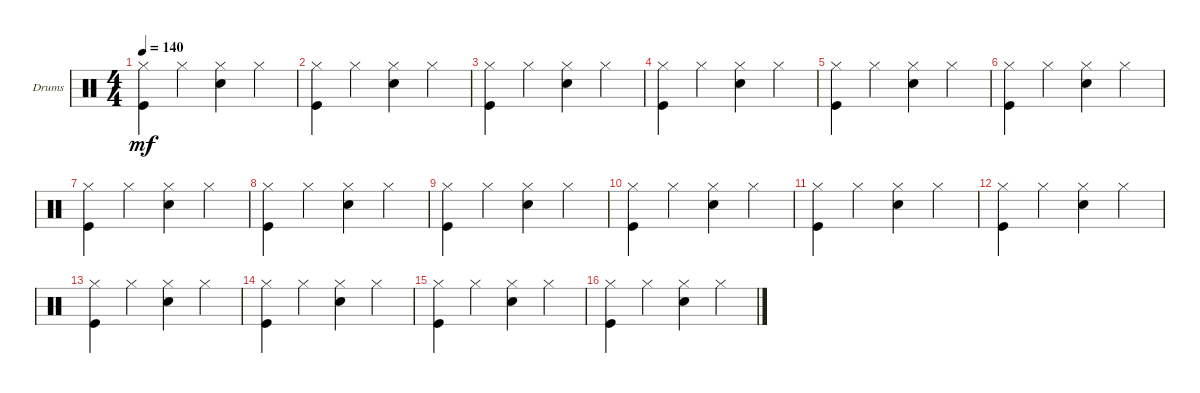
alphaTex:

\defaultSystemsLayout 4
\bracketExtendMode groupsimilarinstruments
\firstSystemTrackNameOrientation horizontal
\otherSystemsTrackNameOrientation horizontal
\track ("Drumkit" "Drums") {instrument percussion}
\staff {score}
\articulation defaults
\ts (4 4)
\tempo 140
\clef neutral
\scale
0.333333
\ks c
("Hi-Hat (closed)" "Kick (hit)").4{dy mf} "Hi-Hat (closed)".4 ("Hi-Hat (closed)" "Snare (hit) 2").4 "Hi-Hat (closed)".4 |
\scale
0.333333 ("Hi-Hat (closed)" "Kick (hit)").4 "Hi-Hat (closed)".4 ("Hi-Hat (closed)" "Snare (hit) 2").4 "Hi-Hat (closed)".4 |
\scale
0.333333 ("Hi-Hat (closed)" "Kick (hit)").4 "Hi-Hat (closed)".4 ("Hi-Hat (closed)" "Snare (hit) 2").4 "Hi-Hat (closed)".4 |
\scale
0.333333 ("Hi-Hat (closed)" "Kick (hit)").4 "Hi-Hat (closed)".4 ("Hi-Hat (closed)" "Snare (hit) 2").4 "Hi-Hat (closed)".4 |
\scale
0.333333 ("Hi-Hat (closed)" "Kick (hit)").4 "Hi-Hat (closed)".4 ("Hi-Hat (closed)" "Snare (hit) 2").4 "Hi-Hat (closed)".4 |
\scale
0.333333 ("Hi-Hat (closed)" "Kick (hit)").4 "Hi-Hat (closed)".4 ("Hi-Hat (closed)" "Snare (hit) 2").4 "Hi-Hat (closed)".4 |
\scale
0.333333 ("Hi-Hat (closed)" "Kick (hit)").4 "Hi-Hat (closed)".4 ("Hi-Hat (closed)" "Snare (hit) 2").4 "Hi-Hat (closed)".4 |
\scale
0.333333 ("Hi-Hat (closed)" "Kick (hit)").4 "Hi-Hat (closed)".4 ("Hi-Hat (closed)" "Snare (hit) 2").4 "Hi-Hat (closed)".4 |
\scale
0.333333 ("Hi-Hat (closed)" "Kick (hit)").4 "Hi-Hat (closed)".4 ("Hi-Hat (closed)" "Snare (hit) 2").4 "Hi-Hat (closed)".4 |
\scale
0.333333 ("Hi-Hat (closed)" "Kick (hit)").4 "Hi-Hat (closed)".4 ("Hi-Hat (closed)" "Snare (hit) 2").4 "Hi-Hat (closed)".4 |
\scale
0.333333 ("Hi-Hat (closed)" "Kick (hit)").4 "Hi-Hat (closed)".4 ("Hi-Hat (closed)" "Snare (hit) 2").4 "Hi-Hat (closed)".4 |
\scale
0.333333 ("Hi-Hat (closed)" "Kick (hit)").4 "Hi-Hat (closed)".4 ("Hi-Hat (closed)" "Snare (hit) 2").4 "Hi-Hat (closed)".4 |
\scale
0.333333 ("Hi-Hat (closed)" "Kick (hit)").4 "Hi-Hat (closed)".4 ("Hi-Hat (closed)" "Snare (hit) 2").4 "Hi-Hat (closed)".4 |
\scale
0.333333 ("Hi-Hat (closed)" "Kick (hit)").4 "Hi-Hat (closed)".4 ("Hi-Hat (closed)" "Snare (hit) 2").4 "Hi-Hat (closed)".4 |
\scale
0.333333 ("Hi-Hat (closed)" "Kick (hit)").4 "Hi-Hat (closed)".4 ("Hi-Hat (closed)" "Snare (hit) 2").4 "Hi-Hat (closed)".4 |
\scale
0.333333 ("Hi-Hat (closed)" "Kick (hit)").4 "Hi-Hat (closed)".4 ("Hi-Hat (closed)" "Snare (hit) 2").4 "Hi-Hat (closed)".4
